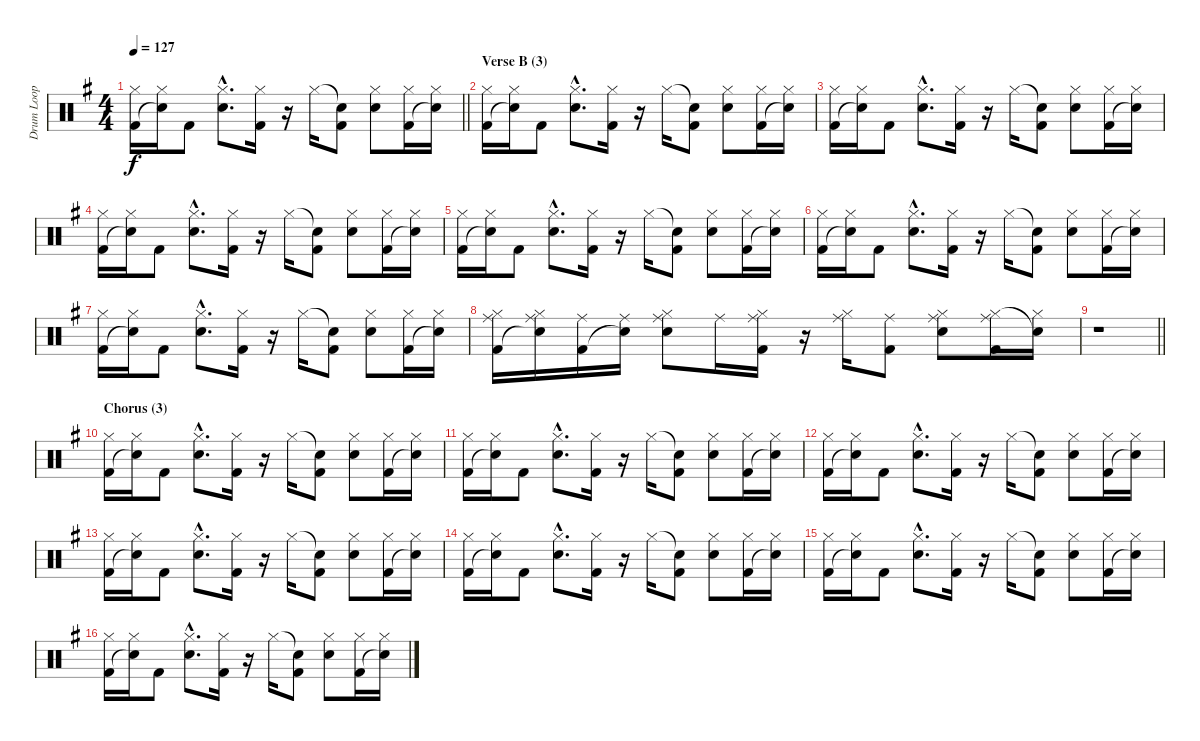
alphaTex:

\track ("Drum Loop" "Drum Loop") {instrument percussion}
\staff {score}
\articulation defaults
\ts (4 4)
\tempo 127
\clef neutral
\barLineRight lightlight
\ks eminor
("Hi-Hat (closed)" "Kick (hit) 2").16{dy f} ("Hi-Hat (closed)" "Snare (hit)"{t}).16 "Kick (hit) 2".8 ("Hi-Hat (closed)"{hac} "Electric Snare (hit)"{hac}).8{d} ("Hi-Hat (closed)" "Kick (hit) 2").16 r.16 "Hi-Hat (closed)".16 ("Snare (hit)"{t} "Kick (hit) 2").8 ("Hi-Hat (closed)" "Electric Snare (hit)").8 ("Hi-Hat (closed)" "Kick (hit) 2").16 ("Hi-Hat (closed)" "Snare (hit)"{t}).16 |
\section ("" "Verse B (3)")
("Hi-Hat (closed)" "Kick (hit) 2").16 ("Hi-Hat (closed)" "Snare (hit)"{t}).16 "Kick (hit) 2".8 ("Hi-Hat (closed)"{hac} "Electric Snare (hit)"{hac}).8{d} ("Hi-Hat (closed)" "Kick (hit) 2").16 r.16 "Hi-Hat (closed)".16 ("Snare (hit)"{t} "Kick (hit) 2").8 ("Hi-Hat (closed)" "Electric Snare (hit)").8 ("Hi-Hat (closed)" "Kick (hit) 2").16 ("Hi-Hat (closed)" "Snare (hit)"{t}).16 |
("Hi-Hat (closed)" "Kick (hit) 2").16 ("Hi-Hat (closed)" "Snare (hit)"{t}).16 "Kick (hit) 2".8 ("Hi-Hat (closed)"{hac} "Electric Snare (hit)"{hac}).8{d} ("Hi-Hat (closed)" "Kick (hit) 2").16 r.16 "Hi-Hat (closed)".16 ("Snare (hit)"{t} "Kick (hit) 2").8 ("Hi-Hat (closed)" "Electric Snare (hit)").8 ("Hi-Hat (closed)" "Kick (hit) 2").16 ("Hi-Hat (closed)" "Snare (hit)"{t}).16 |
("Hi-Hat (closed)" "Kick (hit) 2").16 ("Hi-Hat (closed)" "Snare (hit)"{t}).16 "Kick (hit) 2".8 ("Hi-Hat (closed)"{hac} "Electric Snare (hit)"{hac}).8{d} ("Hi-Hat (closed)" "Kick (hit) 2").16 r.16 "Hi-Hat (closed)".16 ("Snare (hit)"{t} "Kick (hit) 2").8 ("Hi-Hat (closed)" "Electric Snare (hit)").8 ("Hi-Hat (closed)" "Kick (hit) 2").16 ("Hi-Hat (closed)" "Snare (hit)"{t}).16 |
("Hi-Hat (closed)" "Kick (hit) 2").16 ("Hi-Hat (closed)" "Snare (hit)"{t}).16 "Kick (hit) 2".8 ("Hi-Hat (closed)"{hac} "Electric Snare (hit)"{hac}).8{d} ("Hi-Hat (closed)" "Kick (hit) 2").16 r.16 "Hi-Hat (closed)".16 ("Snare (hit)"{t} "Kick (hit) 2").8 ("Hi-Hat (closed)" "Electric Snare (hit)").8 ("Hi-Hat (closed)" "Kick (hit) 2").16 ("Hi-Hat (closed)" "Snare (hit)"{t}).16 |
("Hi-Hat (closed)" "Kick (hit) 2").16 ("Hi-Hat (closed)" "Snare (hit)"{t}).16 "Kick (hit) 2".8 ("Hi-Hat (closed)"{hac} "Electric Snare (hit)"{hac}).8{d} ("Hi-Hat (closed)" "Kick (hit) 2").16 r.16 "Hi-Hat (closed)".16 ("Snare (hit)"{t} "Kick (hit) 2").8 ("Hi-Hat (closed)" "Electric Snare (hit)").8 ("Hi-Hat (closed)" "Kick (hit) 2").16 ("Hi-Hat (closed)" "Snare (hit)"{t}).16 |
("Hi-Hat (closed)" "Kick (hit) 2").16 ("Hi-Hat (closed)" "Snare (hit)"{t}).16 "Kick (hit) 2".8 ("Hi-Hat (closed)"{hac} "Electric Snare (hit)"{hac}).8{d} ("Hi-Hat (closed)" "Kick (hit) 2").16 r.16 "Hi-Hat (closed)".16 ("Snare (hit)"{t} "Kick (hit) 2").8 ("Hi-Hat (closed)" "Electric Snare (hit)").8 ("Hi-Hat (closed)" "Kick (hit) 2").16 ("Hi-Hat (closed)" "Snare (hit)"{t}).16 |
("Ride (middle)" "Hi-Hat (closed)" "Kick (hit) 2").16 ("Ride (middle)" "Hi-Hat (closed)" "Snare (hit)"{t}).16 ("Ride (middle)" "Kick (hit) 2").16 ("Ride (middle)" "Snare (hit)"{t}).16 ("Ride (middle)" "Hi-Hat (closed)" "Electric Snare (hit)").8 "Ride (middle)".16 ("Ride (middle)" "Hi-Hat (closed)" "Kick (hit) 2").16 r.16 ("Ride (middle)" "Hi-Hat (closed)").16 ("Ride (middle)" "Kick (hit) 2").8 ("Ride (middle)" "Hi-Hat (closed)" "Electric Snare (hit)").8 ("Ride (middle)" "Hi-Hat (closed)" "Kick (hit) 2").16 ("Hi-Hat (closed)" "Snare (hit)"{t}).16 |
\barLineRight lightlight
r.1 |
\section ("" "Chorus (3)")
("Hi-Hat (closed)" "Kick (hit) 2").16 ("Hi-Hat (closed)" "Snare (hit)"{t}).16 "Kick (hit) 2".8 ("Hi-Hat (closed)"{hac} "Electric Snare (hit)"{hac}).8{d} ("Hi-Hat (closed)" "Kick (hit) 2").16 r.16 "Hi-Hat (closed)".16 ("Snare (hit)"{t} "Kick (hit) 2").8 ("Hi-Hat (closed)" "Electric Snare (hit)").8 ("Hi-Hat (closed)" "Kick (hit) 2").16 ("Hi-Hat (closed)" "Snare (hit)"{t}).16 |
("Hi-Hat (closed)" "Kick (hit) 2").16 ("Hi-Hat (closed)" "Snare (hit)"{t}).16 "Kick (hit) 2".8 ("Hi-Hat (closed)"{hac} "Electric Snare (hit)"{hac}).8{d} ("Hi-Hat (closed)" "Kick (hit) 2").16 r.16 "Hi-Hat (closed)".16 ("Snare (hit)"{t} "Kick (hit) 2").8 ("Hi-Hat (closed)" "Electric Snare (hit)").8 ("Hi-Hat (closed)" "Kick (hit) 2").16 ("Hi-Hat (closed)" "Snare (hit)"{t}).16 |
("Hi-Hat (closed)" "Kick (hit) 2").16 ("Hi-Hat (closed)" "Snare (hit)"{t}).16 "Kick (hit) 2".8 ("Hi-Hat (closed)"{hac} "Electric Snare (hit)"{hac}).8{d} ("Hi-Hat (closed)" "Kick (hit) 2").16 r.16 "Hi-Hat (closed)".16 ("Snare (hit)"{t} "Kick (hit) 2").8 ("Hi-Hat (closed)" "Electric Snare (hit)").8 ("Hi-Hat (closed)" "Kick (hit) 2").16 ("Hi-Hat (closed)" "Snare (hit)"{t}).16 |
("Hi-Hat (closed)" "Kick (hit) 2").16 ("Hi-Hat (closed)" "Snare (hit)"{t}).16 "Kick (hit) 2".8 ("Hi-Hat (closed)"{hac} "Electric Snare (hit)"{hac}).8{d} ("Hi-Hat (closed)" "Kick (hit) 2").16 r.16 "Hi-Hat (closed)".16 ("Snare (hit)"{t} "Kick (hit) 2").8 ("Hi-Hat (closed)" "Electric Snare (hit)").8 ("Hi-Hat (closed)" "Kick (hit) 2").16 ("Hi-Hat (closed)" "Snare (hit)"{t}).16 |
("Hi-Hat (closed)" "Kick (hit) 2").16 ("Hi-Hat (closed)" "Snare (hit)"{t}).16 "Kick (hit) 2".8 ("Hi-Hat (closed)"{hac} "Electric Snare (hit)"{hac}).8{d} ("Hi-Hat (closed)" "Kick (hit) 2").16 r.16 "Hi-Hat (closed)".16 ("Snare (hit)"{t} "Kick (hit) 2").8 ("Hi-Hat (closed)" "Electric Snare (hit)").8 ("Hi-Hat (closed)" "Kick (hit) 2").16 ("Hi-Hat (closed)" "Snare (hit)"{t}).16 |
("Hi-Hat (closed)" "Kick (hit) 2").16 ("Hi-Hat (closed)" "Snare (hit)"{t}).16 "Kick (hit) 2".8 ("Hi-Hat (closed)"{hac} "Electric Snare (hit)"{hac}).8{d} ("Hi-Hat (closed)" "Kick (hit) 2").16 r.16 "Hi-Hat (closed)".16 ("Snare (hit)"{t} "Kick (hit) 2").8 ("Hi-Hat (closed)" "Electric Snare (hit)").8 ("Hi-Hat (closed)" "Kick (hit) 2").16 ("Hi-Hat (closed)" "Snare (hit)"{t}).16 |
("Hi-Hat (closed)" "Kick (hit) 2").16 ("Hi-Hat (closed)" "Snare (hit)"{t}).16 "Kick (hit) 2".8 ("Hi-Hat (closed)"{hac} "Electric Snare (hit)"{hac}).8{d} ("Hi-Hat (closed)" "Kick (hit) 2").16 r.16 "Hi-Hat (closed)".16 ("Snare (hit)"{t} "Kick (hit) 2").8 ("Hi-Hat (closed)" "Electric Snare (hit)").8 ("Hi-Hat (closed)" "Kick (hit) 2").16 ("Hi-Hat (closed)" "Snare (hit)"{t}).16
